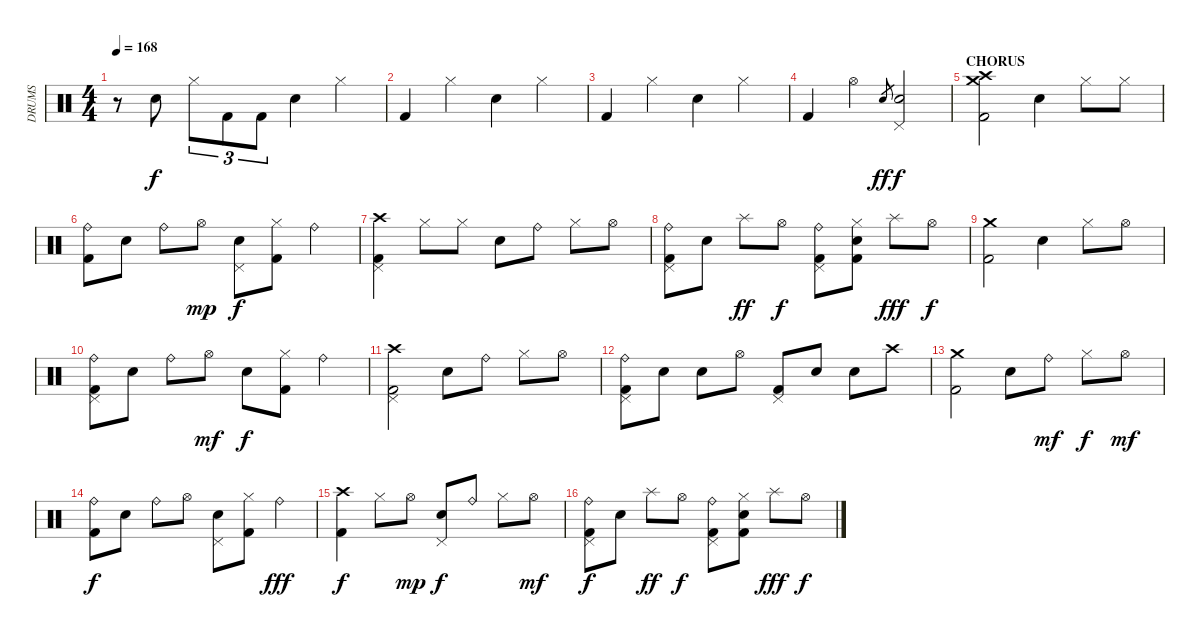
\track ("DRUMS" "DRUMS") {instrument percussion}
\staff {score}
\articulation defaults
\ts (4 4)
\tempo 168
\clef neutral
\ks c
r.8{dy f} "Electric Snare (hit)".8 "Hi-Hat (closed)".8{tu (3 2)} "Kick (hit) 2".8{tu (3 2)} "Kick (hit) 2".8{tu (3 2)} "Electric Snare (hit)".4 "Hi-Hat (closed)".4 |
"Kick (hit) 2".4 "Hi-Hat (closed)".4 "Electric Snare (hit)".4 "Hi-Hat (closed)".4 |
"Kick (hit) 2".4 "Hi-Hat (closed)".4 "Electric Snare (hit)".4 "Hi-Hat (closed)".4 |
"Kick (hit) 2".4 "Hi-Hat (open)".4 "Electric Snare (hit)"{h}.8{gr dy ff} ("Electric Snare (hit)" "Pedal Hi-Hat (hit)").2{dy f} |
\section ("" "CHORUS")
("Crash medium (hit)" "Crash high (hit)" "Kick (hit) 2").2 "Electric Snare (hit)".4 "Hi-Hat (closed)".8 "Hi-Hat (closed)".8 |
("Ride (bell)" "Kick (hit) 2").8 "Electric Snare (hit)".8 "Ride (bell)".8 "Hi-Hat (open)".8{dy mp} ("Electric Snare (hit)" "Pedal Hi-Hat (hit)").8{dy f} ("Hi-Hat (closed)" "Kick (hit) 2").8 "Ride (bell)".4 |
("Crash high (hit)" "Pedal Hi-Hat (hit)" "Kick (hit) 2").4 "Hi-Hat (closed)".8 "Hi-Hat (closed)".8 "Electric Snare (hit)".8 "Ride (bell)".8 "Hi-Hat (closed)".8 "Hi-Hat (open)".8 |
("Ride (bell)" "Pedal Hi-Hat (hit)" "Kick (hit) 2").8 "Electric Snare (hit)".8 "Splash (hit)".8{dy ff} "Hi-Hat (open)".8{dy f} ("Ride (bell)" "Pedal Hi-Hat (hit)" "Kick (hit) 2").8 ("Hi-Hat (closed)" "Electric Snare (hit)" "Kick (hit) 2").8 "Splash (hit)".8{dy fff} "Hi-Hat (open)".8{dy f} |
("Crash medium (hit)" "Kick (hit) 2").2 "Electric Snare (hit)".4 "Hi-Hat (closed)".8 "Hi-Hat (open)".8 |
("Ride (bell)" "Pedal Hi-Hat (hit)" "Kick (hit) 2").8 "Electric Snare (hit)".8 "Ride (bell)".8 "Hi-Hat (open)".8{dy mf} "Electric Snare (hit)".8{dy f} ("Hi-Hat (closed)" "Kick (hit) 2").8 "Ride (bell)".4 |
("Crash high (hit)" "Pedal Hi-Hat (hit)" "Kick (hit) 2").2 "Electric Snare (hit)".8 "Ride (bell)".8 "Hi-Hat (closed)".8 "Hi-Hat (open)".8 |
("Ride (bell)" "Pedal Hi-Hat (hit)" "Kick (hit) 2").8 "Electric Snare (hit)".8 "Electric Snare (hit)".8 "Hi-Hat (open)".8 ("Pedal Hi-Hat (hit)" "Kick (hit) 2").8 "Electric Snare (hit)".8 "Electric Snare (hit)".8 "Crash high (hit)".8 |
("Crash medium (hit)" "Kick (hit) 2").2 "Electric Snare (hit)".8 "Ride (bell)".8{dy mf} "Hi-Hat (closed)".8{dy f} "Hi-Hat (open)".8{dy mf} |
("Ride (bell)" "Kick (hit) 2").8{dy f} "Electric Snare (hit)".8 "Ride (bell)".8 "Hi-Hat (open)".8 ("Electric Snare (hit)" "Pedal Hi-Hat (hit)").8 ("Hi-Hat (closed)" "Kick (hit) 2").8 "Ride (bell)".4{dy fff} |
("Crash high (hit)" "Kick (hit) 2").4{dy f} "Hi-Hat (closed)".8 "Hi-Hat (open)".8{dy mp} ("Electric Snare (hit)" "Pedal Hi-Hat (hit)").8{dy f} "Ride (bell)".8 "Hi-Hat (closed)".8 "Hi-Hat (open)".8{dy mf} |
("Ride (bell)" "Pedal Hi-Hat (hit)" "Kick (hit) 2").8{dy f} "Electric Snare (hit)".8 "Splash (hit)".8{dy ff} "Hi-Hat (open)".8{dy f} ("Ride (bell)" "Pedal Hi-Hat (hit)" "Kick (hit) 2").8 ("Hi-Hat (closed)" "Electric Snare (hit)" "Kick (hit) 2").8 "Splash (hit)".8{dy fff} "Hi-Hat (open)".8{dy f}
